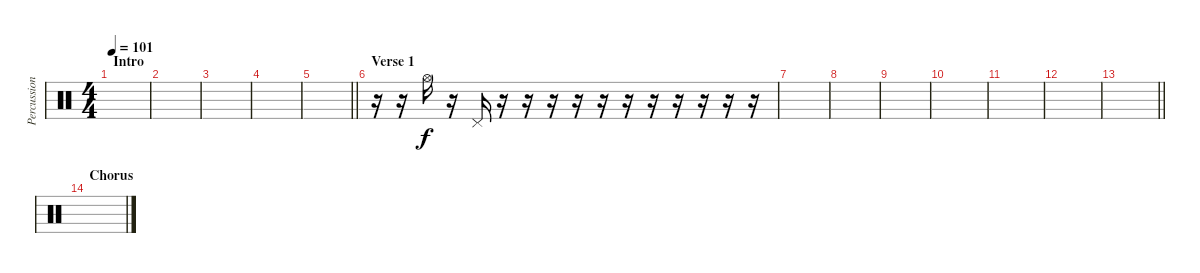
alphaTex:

\track ("Percussion (Chris)" "Percussion") {instrument percussion}
\staff {score}
\articulation defaults
\ts (4 4)
\section ("" "Intro")
\tempo 101
\clef neutral
\ks c
|
|
|
|
\barLineRight lightlight
|
\section ("" "Verse 1")
r.16 r.16 "Hi-Hat (open)".16 r.16 "Pedal Hi-Hat (hit)".16 r.16 r.16 r.16 r.16 r.16 r.16 r.16 r.16 r.16 r.16 r.16 |
|
|
|
|
|
|
\barLineRight lightlight
|
\section ("" "Chorus")
